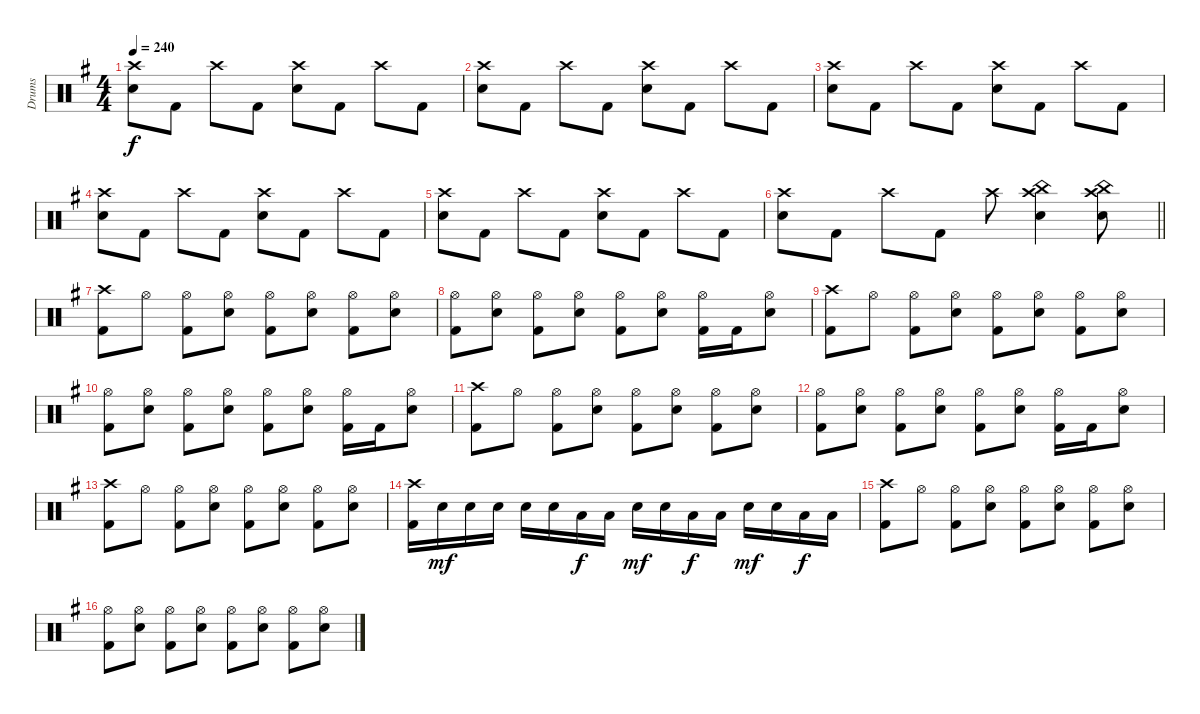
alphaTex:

\track ("Drums" "Drums") {instrument percussion}
\staff {score}
\articulation defaults
\ts (4 4)
\tempo 240
\clef neutral
\ks eminor
("Crash high (hit)" "Snare (hit) 2").8{dy f} "Kick (hit) 2".8 "Crash high (hit)".8 "Kick (hit) 2".8 ("Crash high (hit)" "Snare (hit) 2").8 "Kick (hit) 2".8 "Crash high (hit)".8 "Kick (hit) 2".8 |
("Crash high (hit)" "Snare (hit) 2").8 "Kick (hit) 2".8 "Crash high (hit)".8 "Kick (hit) 2".8 ("Crash high (hit)" "Snare (hit) 2").8 "Kick (hit) 2".8 "Crash high (hit)".8 "Kick (hit) 2".8 |
("Crash high (hit)" "Snare (hit) 2").8 "Kick (hit) 2".8 "Crash high (hit)".8 "Kick (hit) 2".8 ("Crash high (hit)" "Snare (hit) 2").8 "Kick (hit) 2".8 "Crash high (hit)".8 "Kick (hit) 2".8 |
("Crash high (hit)" "Snare (hit) 2").8 "Kick (hit) 2".8 "Crash high (hit)".8 "Kick (hit) 2".8 ("Crash high (hit)" "Snare (hit) 2").8 "Kick (hit) 2".8 "Crash high (hit)".8 "Kick (hit) 2".8 |
("Crash high (hit)" "Snare (hit) 2").8 "Kick (hit) 2".8 "Crash high (hit)".8 "Kick (hit) 2".8 ("Crash high (hit)" "Snare (hit) 2").8 "Kick (hit) 2".8 "Crash high (hit)".8 "Kick (hit) 2".8 |
\barLineRight lightlight
("Crash high (hit)" "Snare (hit) 2").8 "Kick (hit) 2".8 "Crash high (hit)".8 "Kick (hit) 2".8 "Crash high (hit)".8 ("China (hit)" "Crash high (hit)" "Snare (hit) 2").4 ("China (hit)" "Crash high (hit)" "Snare (hit) 2").8 |
("Crash high (hit)" "Kick (hit) 2").8 "Hi-Hat (open)".8 ("Hi-Hat (open)" "Kick (hit) 2").8 ("Hi-Hat (open)" "Snare (hit) 2").8 ("Hi-Hat (open)" "Kick (hit) 2").8 ("Hi-Hat (open)" "Snare (hit) 2").8 ("Hi-Hat (open)" "Kick (hit) 2").8 ("Hi-Hat (open)" "Snare (hit) 2").8 |
("Hi-Hat (open)" "Kick (hit) 2").8 ("Hi-Hat (open)" "Snare (hit) 2").8 ("Hi-Hat (open)" "Kick (hit) 2").8 ("Hi-Hat (open)" "Snare (hit) 2").8 ("Hi-Hat (open)" "Kick (hit) 2").8 ("Hi-Hat (open)" "Snare (hit) 2").8 ("Hi-Hat (open)" "Kick (hit) 2").16 "Kick (hit) 2".16 ("Hi-Hat (open)" "Snare (hit) 2").8 |
("Crash high (hit)" "Kick (hit) 2").8 "Hi-Hat (open)".8 ("Hi-Hat (open)" "Kick (hit) 2").8 ("Hi-Hat (open)" "Snare (hit) 2").8 ("Hi-Hat (open)" "Kick (hit) 2").8 ("Hi-Hat (open)" "Snare (hit) 2").8 ("Hi-Hat (open)" "Kick (hit) 2").8 ("Hi-Hat (open)" "Snare (hit) 2").8 |
("Hi-Hat (open)" "Kick (hit) 2").8 ("Hi-Hat (open)" "Snare (hit) 2").8 ("Hi-Hat (open)" "Kick (hit) 2").8 ("Hi-Hat (open)" "Snare (hit) 2").8 ("Hi-Hat (open)" "Kick (hit) 2").8 ("Hi-Hat (open)" "Snare (hit) 2").8 ("Hi-Hat (open)" "Kick (hit) 2").16 "Kick (hit) 2".16 ("Hi-Hat (open)" "Snare (hit) 2").8 |
("Crash high (hit)" "Kick (hit) 2").8 "Hi-Hat (open)".8 ("Hi-Hat (open)" "Kick (hit) 2").8 ("Hi-Hat (open)" "Snare (hit) 2").8 ("Hi-Hat (open)" "Kick (hit) 2").8 ("Hi-Hat (open)" "Snare (hit) 2").8 ("Hi-Hat (open)" "Kick (hit) 2").8 ("Hi-Hat (open)" "Snare (hit) 2").8 |
("Hi-Hat (open)" "Kick (hit) 2").8 ("Hi-Hat (open)" "Snare (hit) 2").8 ("Hi-Hat (open)" "Kick (hit) 2").8 ("Hi-Hat (open)" "Snare (hit) 2").8 ("Hi-Hat (open)" "Kick (hit) 2").8 ("Hi-Hat (open)" "Snare (hit) 2").8 ("Hi-Hat (open)" "Kick (hit) 2").16 "Kick (hit) 2".16 ("Hi-Hat (open)" "Snare (hit) 2").8 |
("Crash high (hit)" "Kick (hit) 2").8 "Hi-Hat (open)".8 ("Hi-Hat (open)" "Kick (hit) 2").8 ("Hi-Hat (open)" "Snare (hit) 2").8 ("Hi-Hat (open)" "Kick (hit) 2").8 ("Hi-Hat (open)" "Snare (hit) 2").8 ("Hi-Hat (open)" "Kick (hit) 2").8 ("Hi-Hat (open)" "Snare (hit) 2").8 |
("Crash high (hit)" "Kick (hit) 2").16 "Snare (hit) 2".16{dy mf} "Snare (hit) 2".16 "Snare (hit) 2".16 "Snare (hit) 2".16 "Snare (hit) 2".16 "Low Tom (hit)".16{dy f} "Low Tom (hit)".16 "Snare (hit) 2".16{dy mf} "Snare (hit) 2".16 "Low Tom (hit)".16{dy f} "Low Tom (hit)".16 "Snare (hit) 2".16{dy mf} "Snare (hit) 2".16 "Low Tom (hit)".16{dy f} "Low Tom (hit)".16 |
("Crash high (hit)" "Kick (hit) 2").8 "Hi-Hat (open)".8 ("Hi-Hat (open)" "Kick (hit) 2").8 ("Hi-Hat (open)" "Snare (hit) 2").8 ("Hi-Hat (open)" "Kick (hit) 2").8 ("Hi-Hat (open)" "Snare (hit) 2").8 ("Hi-Hat (open)" "Kick (hit) 2").8 ("Hi-Hat (open)" "Snare (hit) 2").8 |
("Hi-Hat (open)" "Kick (hit) 2").8 ("Hi-Hat (open)" "Snare (hit) 2").8 ("Hi-Hat (open)" "Kick (hit) 2").8 ("Hi-Hat (open)" "Snare (hit) 2").8 ("Hi-Hat (open)" "Kick (hit) 2").8 ("Hi-Hat (open)" "Snare (hit) 2").8 ("Hi-Hat (open)" "Kick (hit) 2").8 ("Hi-Hat (open)" "Snare (hit) 2").8
